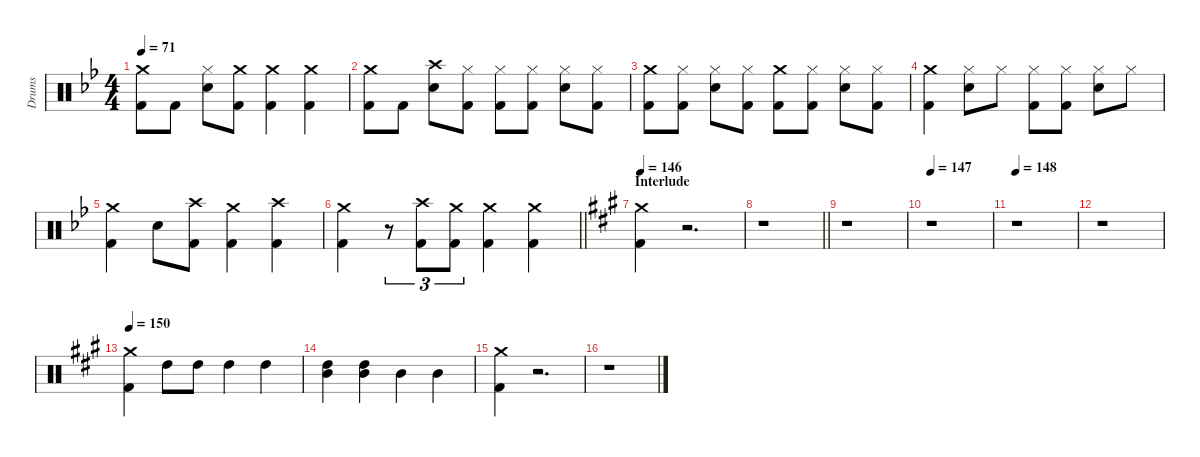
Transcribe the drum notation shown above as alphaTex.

\defaultSystemsLayout 8
\hideDynamics
\bracketExtendMode nobrackets
\otherSystemsTrackNameOrientation horizontal
\track ("Drumkit" "Drums") {defaultSystemsLayout 4 instrument percussion}
\staff {score}
\articulation defaults
\ts (4 4)
\tempo 71
\clef neutral
\ks gminor
("Crash medium (hit)"{acc forcenatural} "Kick (hit) 2"{acc forcenatural}).8{dy f beam Down} "Kick (hit) 2"{acc forcenatural}.8{beam Down} ("Hi-Hat (closed)"{acc forcenatural} "Snare (hit) 2"{acc forcenatural}).8{beam Down} ("Crash medium (hit)"{acc forcenatural} "Kick (hit) 2"{acc forcenatural}).8{beam Down} ("Crash medium (hit)"{acc forcenatural} "Kick (hit) 2"{acc forcenatural}).4{beam Down} ("Crash medium (hit)"{acc forcenatural} "Kick (hit) 2"{acc forcenatural}).4{beam Down} |
("Crash medium (hit)"{acc forcenatural} "Kick (hit) 2"{acc forcenatural}).8{beam Down} "Kick (hit) 2"{acc forcenatural}.8{beam Down} ("Crash high (hit)"{acc forcenatural} "Snare (hit) 2"{acc forcenatural}).8{beam Down} ("Hi-Hat (closed)"{acc forcenatural} "Kick (hit) 2"{acc forcenatural}).8{beam Down} ("Hi-Hat (closed)"{acc forcenatural} "Kick (hit) 2"{acc forcenatural}).8{beam Down} ("Hi-Hat (closed)"{acc forcenatural} "Kick (hit) 2"{acc forcenatural}).8{beam Down} ("Hi-Hat (closed)"{acc forcenatural} "Snare (hit) 2"{acc forcenatural}).8{beam Down} ("Hi-Hat (closed)"{acc forcenatural} "Kick (hit) 2"{acc forcenatural}).8{beam Down} |
("Crash medium (hit)"{acc forcenatural} "Kick (hit) 2"{acc forcenatural}).8{beam Down} ("Hi-Hat (closed)"{acc forcenatural} "Kick (hit) 2"{acc forcenatural}).8{beam Down} ("Hi-Hat (closed)"{acc forcenatural} "Snare (hit) 2"{acc forcenatural}).8{beam Down} ("Hi-Hat (closed)"{acc forcenatural} "Kick (hit) 2"{acc forcenatural}).8{beam Down} ("Crash medium (hit)"{acc forcenatural} "Kick (hit) 2"{acc forcenatural}).8{beam Down} ("Hi-Hat (closed)"{acc forcenatural} "Kick (hit) 2"{acc forcenatural}).8{beam Down} ("Hi-Hat (closed)"{acc forcenatural} "Snare (hit) 2"{acc forcenatural}).8{beam Down} ("Hi-Hat (closed)"{acc forcenatural} "Kick (hit) 2"{acc forcenatural}).8{beam Down} |
("Crash medium (hit)"{acc forcenatural} "Kick (hit) 2"{acc forcenatural}).4{beam Down} ("Hi-Hat (closed)"{acc forcenatural} "Snare (hit) 2"{acc forcenatural}).8{beam Down} "Hi-Hat (closed)"{acc forcenatural}.8{beam Down} ("Hi-Hat (closed)"{acc forcenatural} "Kick (hit) 2"{acc forcenatural}).8{beam Down} ("Hi-Hat (closed)"{acc forcenatural} "Kick (hit) 2"{acc forcenatural}).8{beam Down} ("Hi-Hat (closed)"{acc forcenatural} "Snare (hit) 2"{acc forcenatural}).8{beam Down} "Hi-Hat (closed)"{acc forcenatural}.8{beam Down} |
("Crash medium (hit)"{acc forcenatural} "Kick (hit) 2"{acc forcenatural}).4{beam Down} "Snare (hit) 2"{acc forcenatural}.8{beam Down} ("Crash high (hit)"{acc forcenatural} "Kick (hit) 2"{acc forcenatural}).8{beam Down} ("Crash medium (hit)"{acc forcenatural} "Kick (hit) 2"{acc forcenatural}).4{beam Down} ("Crash high (hit)"{acc forcenatural} "Kick (hit) 2"{acc forcenatural}).4{beam Down} |
\barLineRight lightlight
("Crash medium (hit)"{acc forcenatural} "Kick (hit) 2"{acc forcenatural}).4{beam Down} r.8{tu (3 2) beam Down} ("Crash high (hit)"{acc forcenatural} "Kick (hit) 2"{acc forcenatural}).8{tu (3 2) beam Down} ("Crash medium (hit)"{acc forcenatural} "Kick (hit) 2"{acc forcenatural}).8{tu (3 2) beam Down} ("Crash medium (hit)"{acc forcenatural} "Kick (hit) 2"{acc forcenatural}).4{beam Down} ("Crash medium (hit)"{acc forcenatural} "Kick (hit) 2"{acc forcenatural}).4{beam Down} |
\section ("" "Interlude")
\tempo 146
\ks a
("Crash medium (hit)"{acc forcenatural} "Kick (hit) 2"{acc forcenatural}).4{beam Down} r.2{d beam Down} |
\barLineRight lightlight
r.1{beam Down} |
r.1{beam Down} |
\tempo 147
r.1{beam Down} |
\tempo 148
r.1{beam Down} |
r.1{beam Down} |
\tempo 150
("Crash medium (hit)"{acc forcenatural} "Kick (hit) 2"{acc forcenatural}).4{beam Down} "High Tom (hit)"{acc forcenatural}.8{beam Down} "High Tom (hit)"{acc forcenatural}.8{beam Down} "High Tom (hit)"{acc forcenatural}.4{beam Down} "High Tom (hit)"{acc forcenatural}.4{beam Down} |
("High Tom (hit)"{acc forcenatural} "Mid Tom (hit)"{acc forcenatural}).4{beam Down} ("High Tom (hit)"{acc forcenatural} "Mid Tom (hit)"{acc forcenatural}).4{beam Down} "Mid Tom (hit)"{acc forcenatural}.4{beam Down} "Mid Tom (hit)"{acc forcenatural}.4{beam Down} |
("Crash medium (hit)"{acc forcenatural} "Kick (hit) 2"{acc forcenatural}).4{beam Down} r.2{d beam Down} |
r.1{beam Down}
